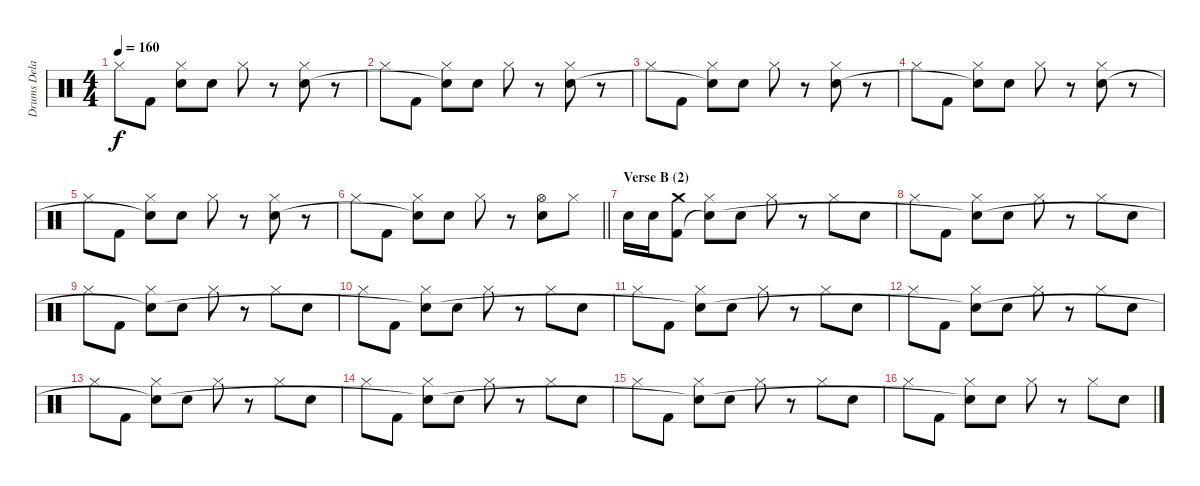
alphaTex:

\track ("Drums Delay" "Drums Dela") {instrument percussion}
\staff {score}
\articulation defaults
\ts (4 4)
\tempo 160
\clef neutral
\ks c "Hi-Hat (closed)".8{dy f} "Kick (hit) 2".8
("Hi-Hat (closed)" "Snare (hit)"{t}).8 "Electric Snare (hit)".8 "Hi-Hat (closed)".8 r.8 ("Hi-Hat (closed)" "Electric Snare (hit)").8 r.8 |
"Hi-Hat (closed)".8 "Kick (hit) 2".8 ("Hi-Hat (closed)" "Snare (hit)"{t}).8 "Electric Snare (hit)".8 "Hi-Hat (closed)".8 r.8 ("Hi-Hat (closed)" "Electric Snare (hit)").8 r.8 |
"Hi-Hat (closed)".8 "Kick (hit) 2".8 ("Hi-Hat (closed)" "Snare (hit)"{t}).8 "Electric Snare (hit)".8 "Hi-Hat (closed)".8 r.8 ("Hi-Hat (closed)" "Electric Snare (hit)").8 r.8 |
"Hi-Hat (closed)".8 "Kick (hit) 2".8 ("Hi-Hat (closed)" "Snare (hit)"{t}).8 "Electric Snare (hit)".8 "Hi-Hat (closed)".8 r.8 ("Hi-Hat (closed)" "Electric Snare (hit)").8 r.8 |
"Hi-Hat (closed)".8 "Kick (hit) 2".8 ("Hi-Hat (closed)" "Snare (hit)"{t}).8 "Electric Snare (hit)".8 "Hi-Hat (closed)".8 r.8 ("Hi-Hat (closed)" "Electric Snare (hit)").8 r.8 |
\barLineRight lightlight "Hi-Hat (closed)".8 "Kick (hit) 2".8
("Hi-Hat (closed)" "Snare (hit)"{t}).8 "Electric Snare (hit)".8 "Hi-Hat (closed)".8 r.8 ("Hi-Hat (open)" "Electric Snare (hit)").8 "Hi-Hat (closed)".8 |
\section ("" "Verse B (2)")
"Electric Snare (hit)".16 "Electric Snare (hit)".16 ("Crash medium (hit)" "Kick (hit) 2").8 ("Hi-Hat (closed)" "Snare (hit)"{t}).8 "Electric Snare (hit)".8 "Hi-Hat (closed)".8 r.8 "Hi-Hat (closed)".8 "Electric Snare (hit)".8 |
"Hi-Hat (closed)".8 "Kick (hit) 2".8 ("Hi-Hat (closed)" "Snare (hit)"{t}).8 "Electric Snare (hit)".8 "Hi-Hat (closed)".8 r.8 "Hi-Hat (closed)".8 "Electric Snare (hit)".8 |
"Hi-Hat (closed)".8 "Kick (hit) 2".8 ("Hi-Hat (closed)" "Snare (hit)"{t}).8 "Electric Snare (hit)".8 "Hi-Hat (closed)".8 r.8 "Hi-Hat (closed)".8 "Electric Snare (hit)".8 |
"Hi-Hat (closed)".8 "Kick (hit) 2".8 ("Hi-Hat (closed)" "Snare (hit)"{t}).8 "Electric Snare (hit)".8 "Hi-Hat (closed)".8 r.8 "Hi-Hat (closed)".8 "Electric Snare (hit)".8 |
"Hi-Hat (closed)".8 "Kick (hit) 2".8 ("Hi-Hat (closed)" "Snare (hit)"{t}).8 "Electric Snare (hit)".8 "Hi-Hat (closed)".8 r.8 "Hi-Hat (closed)".8 "Electric Snare (hit)".8 |
"Hi-Hat (closed)".8 "Kick (hit) 2".8 ("Hi-Hat (closed)" "Snare (hit)"{t}).8 "Electric Snare (hit)".8 "Hi-Hat (closed)".8 r.8 "Hi-Hat (closed)".8 "Electric Snare (hit)".8 |
"Hi-Hat (closed)".8 "Kick (hit) 2".8 ("Hi-Hat (closed)" "Snare (hit)"{t}).8 "Electric Snare (hit)".8 "Hi-Hat (closed)".8 r.8 "Hi-Hat (closed)".8 "Electric Snare (hit)".8 |
"Hi-Hat (closed)".8 "Kick (hit) 2".8 ("Hi-Hat (closed)" "Snare (hit)"{t}).8 "Electric Snare (hit)".8 "Hi-Hat (closed)".8 r.8 "Hi-Hat (closed)".8 "Electric Snare (hit)".8 |
"Hi-Hat (closed)".8 "Kick (hit) 2".8 ("Hi-Hat (closed)" "Snare (hit)"{t}).8 "Electric Snare (hit)".8 "Hi-Hat (closed)".8 r.8 "Hi-Hat (closed)".8 "Electric Snare (hit)".8 |
"Hi-Hat (closed)".8 "Kick (hit) 2".8 ("Hi-Hat (closed)" "Snare (hit)"{t}).8 "Electric Snare (hit)".8 "Hi-Hat (closed)".8 r.8 "Hi-Hat (closed)".8 "Electric Snare (hit)".8
